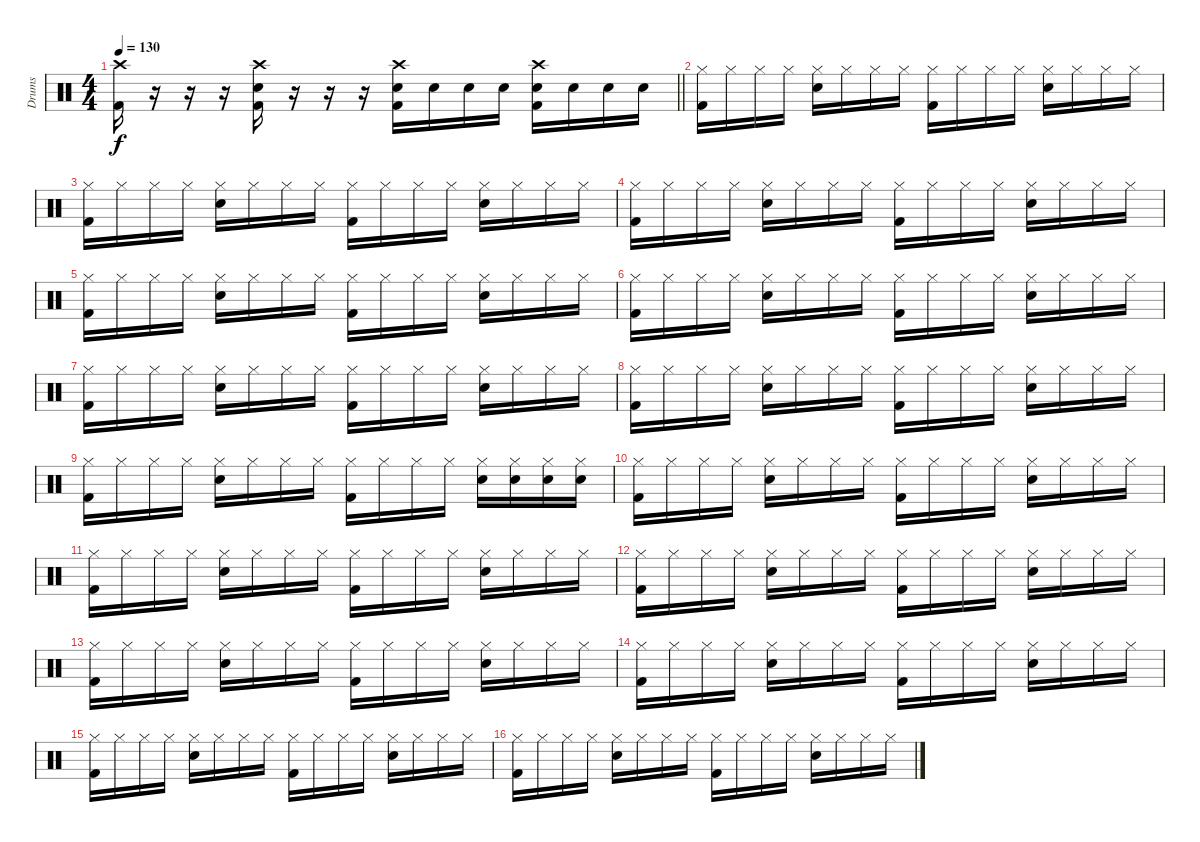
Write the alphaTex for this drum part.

\track ("Drums" "Drums") {instrument percussion}
\staff {score}
\articulation defaults
\ts (4 4)
\tempo 130
\clef neutral
\barLineRight lightlight
\ks c
("Crash high (hit)" "Kick (hit) 2").16{dy f} r.16 r.16 r.16 ("Crash high (hit)" "Hand Clap (hit)" "Kick (hit) 2").16 r.16 r.16 r.16 ("Crash high (hit)" "Electric Snare (hit)" "Kick (hit) 2").16 "Electric Snare (hit)".16 "Electric Snare (hit)".16 "Electric Snare (hit)".16 ("Crash high (hit)" "Electric Snare (hit)" "Kick (hit) 2").16 "Electric Snare (hit)".16 "Electric Snare (hit)".16 "Electric Snare (hit)".16 |
\section ("" "")
("Hi-Hat (closed)" "Kick (hit) 2").16 "Hi-Hat (closed)".16 "Hi-Hat (closed)".16 "Hi-Hat (closed)".16 ("Hi-Hat (closed)" "Electric Snare (hit)").16 "Hi-Hat (closed)".16 "Hi-Hat (closed)".16 "Hi-Hat (closed)".16 ("Hi-Hat (closed)" "Kick (hit) 2").16 "Hi-Hat (closed)".16 "Hi-Hat (closed)".16 "Hi-Hat (closed)".16 ("Hi-Hat (closed)" "Electric Snare (hit)").16 "Hi-Hat (closed)".16 "Hi-Hat (closed)".16 "Hi-Hat (closed)".16 |
("Hi-Hat (closed)" "Kick (hit) 2").16 "Hi-Hat (closed)".16 "Hi-Hat (closed)".16 "Hi-Hat (closed)".16 ("Hi-Hat (closed)" "Electric Snare (hit)").16 "Hi-Hat (closed)".16 "Hi-Hat (closed)".16 "Hi-Hat (closed)".16 ("Hi-Hat (closed)" "Kick (hit) 2").16 "Hi-Hat (closed)".16 "Hi-Hat (closed)".16 "Hi-Hat (closed)".16 ("Hi-Hat (closed)" "Electric Snare (hit)").16 "Hi-Hat (closed)".16 "Hi-Hat (closed)".16 "Hi-Hat (closed)".16 |
("Hi-Hat (closed)" "Kick (hit) 2").16 "Hi-Hat (closed)".16 "Hi-Hat (closed)".16 "Hi-Hat (closed)".16 ("Hi-Hat (closed)" "Electric Snare (hit)").16 "Hi-Hat (closed)".16 "Hi-Hat (closed)".16 "Hi-Hat (closed)".16 ("Hi-Hat (closed)" "Kick (hit) 2").16 "Hi-Hat (closed)".16 "Hi-Hat (closed)".16 "Hi-Hat (closed)".16 ("Hi-Hat (closed)" "Electric Snare (hit)").16 "Hi-Hat (closed)".16 "Hi-Hat (closed)".16 "Hi-Hat (closed)".16 |
("Hi-Hat (closed)" "Kick (hit) 2").16 "Hi-Hat (closed)".16 "Hi-Hat (closed)".16 "Hi-Hat (closed)".16 ("Hi-Hat (closed)" "Electric Snare (hit)").16 "Hi-Hat (closed)".16 "Hi-Hat (closed)".16 "Hi-Hat (closed)".16 ("Hi-Hat (closed)" "Kick (hit) 2").16 "Hi-Hat (closed)".16 "Hi-Hat (closed)".16 "Hi-Hat (closed)".16 ("Hi-Hat (closed)" "Electric Snare (hit)").16 "Hi-Hat (closed)".16 "Hi-Hat (closed)".16 "Hi-Hat (closed)".16 |
("Hi-Hat (closed)" "Kick (hit) 2").16 "Hi-Hat (closed)".16 "Hi-Hat (closed)".16 "Hi-Hat (closed)".16 ("Hi-Hat (closed)" "Electric Snare (hit)").16 "Hi-Hat (closed)".16 "Hi-Hat (closed)".16 "Hi-Hat (closed)".16 ("Hi-Hat (closed)" "Kick (hit) 2").16 "Hi-Hat (closed)".16 "Hi-Hat (closed)".16 "Hi-Hat (closed)".16 ("Hi-Hat (closed)" "Electric Snare (hit)").16 "Hi-Hat (closed)".16 "Hi-Hat (closed)".16 "Hi-Hat (closed)".16 |
("Hi-Hat (closed)" "Kick (hit) 2").16 "Hi-Hat (closed)".16 "Hi-Hat (closed)".16 "Hi-Hat (closed)".16 ("Hi-Hat (closed)" "Electric Snare (hit)").16 "Hi-Hat (closed)".16 "Hi-Hat (closed)".16 "Hi-Hat (closed)".16 ("Hi-Hat (closed)" "Kick (hit) 2").16 "Hi-Hat (closed)".16 "Hi-Hat (closed)".16 "Hi-Hat (closed)".16 ("Hi-Hat (closed)" "Electric Snare (hit)").16 "Hi-Hat (closed)".16 "Hi-Hat (closed)".16 "Hi-Hat (closed)".16 |
("Hi-Hat (closed)" "Kick (hit) 2").16 "Hi-Hat (closed)".16 "Hi-Hat (closed)".16 "Hi-Hat (closed)".16 ("Hi-Hat (closed)" "Electric Snare (hit)").16 "Hi-Hat (closed)".16 "Hi-Hat (closed)".16 "Hi-Hat (closed)".16 ("Hi-Hat (closed)" "Kick (hit) 2").16 "Hi-Hat (closed)".16 "Hi-Hat (closed)".16 "Hi-Hat (closed)".16 ("Hi-Hat (closed)" "Electric Snare (hit)").16 "Hi-Hat (closed)".16 "Hi-Hat (closed)".16 "Hi-Hat (closed)".16 |
("Hi-Hat (closed)" "Kick (hit) 2").16 "Hi-Hat (closed)".16 "Hi-Hat (closed)".16 "Hi-Hat (closed)".16 ("Hi-Hat (closed)" "Electric Snare (hit)").16 "Hi-Hat (closed)".16 "Hi-Hat (closed)".16 "Hi-Hat (closed)".16 ("Hi-Hat (closed)" "Kick (hit) 2").16 "Hi-Hat (closed)".16 "Hi-Hat (closed)".16 "Hi-Hat (closed)".16 ("Hi-Hat (closed)" "Electric Snare (hit)").16 ("Hi-Hat (closed)" "Electric Snare (hit)").16 ("Hi-Hat (closed)" "Electric Snare (hit)").16 ("Hi-Hat (closed)" "Electric Snare (hit)").16 |
("Hi-Hat (closed)" "Kick (hit) 2").16 "Hi-Hat (closed)".16 "Hi-Hat (closed)".16 "Hi-Hat (closed)".16 ("Hi-Hat (closed)" "Electric Snare (hit)").16 "Hi-Hat (closed)".16 "Hi-Hat (closed)".16 "Hi-Hat (closed)".16 ("Hi-Hat (closed)" "Kick (hit) 2").16 "Hi-Hat (closed)".16 "Hi-Hat (closed)".16 "Hi-Hat (closed)".16 ("Hi-Hat (closed)" "Electric Snare (hit)").16 "Hi-Hat (closed)".16 "Hi-Hat (closed)".16 "Hi-Hat (closed)".16 |
("Hi-Hat (closed)" "Kick (hit) 2").16 "Hi-Hat (closed)".16 "Hi-Hat (closed)".16 "Hi-Hat (closed)".16 ("Hi-Hat (closed)" "Electric Snare (hit)").16 "Hi-Hat (closed)".16 "Hi-Hat (closed)".16 "Hi-Hat (closed)".16 ("Hi-Hat (closed)" "Kick (hit) 2").16 "Hi-Hat (closed)".16 "Hi-Hat (closed)".16 "Hi-Hat (closed)".16 ("Hi-Hat (closed)" "Electric Snare (hit)").16 "Hi-Hat (closed)".16 "Hi-Hat (closed)".16 "Hi-Hat (closed)".16 |
("Hi-Hat (closed)" "Kick (hit) 2").16 "Hi-Hat (closed)".16 "Hi-Hat (closed)".16 "Hi-Hat (closed)".16 ("Hi-Hat (closed)" "Electric Snare (hit)").16 "Hi-Hat (closed)".16 "Hi-Hat (closed)".16 "Hi-Hat (closed)".16 ("Hi-Hat (closed)" "Kick (hit) 2").16 "Hi-Hat (closed)".16 "Hi-Hat (closed)".16 "Hi-Hat (closed)".16 ("Hi-Hat (closed)" "Electric Snare (hit)").16 "Hi-Hat (closed)".16 "Hi-Hat (closed)".16 "Hi-Hat (closed)".16 |
("Hi-Hat (closed)" "Kick (hit) 2").16 "Hi-Hat (closed)".16 "Hi-Hat (closed)".16 "Hi-Hat (closed)".16 ("Hi-Hat (closed)" "Electric Snare (hit)").16 "Hi-Hat (closed)".16 "Hi-Hat (closed)".16 "Hi-Hat (closed)".16 ("Hi-Hat (closed)" "Kick (hit) 2").16 "Hi-Hat (closed)".16 "Hi-Hat (closed)".16 "Hi-Hat (closed)".16 ("Hi-Hat (closed)" "Electric Snare (hit)").16 "Hi-Hat (closed)".16 "Hi-Hat (closed)".16 "Hi-Hat (closed)".16 |
("Hi-Hat (closed)" "Kick (hit) 2").16 "Hi-Hat (closed)".16 "Hi-Hat (closed)".16 "Hi-Hat (closed)".16 ("Hi-Hat (closed)" "Electric Snare (hit)").16 "Hi-Hat (closed)".16 "Hi-Hat (closed)".16 "Hi-Hat (closed)".16 ("Hi-Hat (closed)" "Kick (hit) 2").16 "Hi-Hat (closed)".16 "Hi-Hat (closed)".16 "Hi-Hat (closed)".16 ("Hi-Hat (closed)" "Electric Snare (hit)").16 "Hi-Hat (closed)".16 "Hi-Hat (closed)".16 "Hi-Hat (closed)".16 |
("Hi-Hat (closed)" "Kick (hit) 2").16 "Hi-Hat (closed)".16 "Hi-Hat (closed)".16 "Hi-Hat (closed)".16 ("Hi-Hat (closed)" "Electric Snare (hit)").16 "Hi-Hat (closed)".16 "Hi-Hat (closed)".16 "Hi-Hat (closed)".16 ("Hi-Hat (closed)" "Kick (hit) 2").16 "Hi-Hat (closed)".16 "Hi-Hat (closed)".16 "Hi-Hat (closed)".16 ("Hi-Hat (closed)" "Electric Snare (hit)").16 "Hi-Hat (closed)".16 "Hi-Hat (closed)".16 "Hi-Hat (closed)".16 |
("Hi-Hat (closed)" "Kick (hit) 2").16 "Hi-Hat (closed)".16 "Hi-Hat (closed)".16 "Hi-Hat (closed)".16 ("Hi-Hat (closed)" "Electric Snare (hit)").16 "Hi-Hat (closed)".16 "Hi-Hat (closed)".16 "Hi-Hat (closed)".16 ("Hi-Hat (closed)" "Kick (hit) 2").16 "Hi-Hat (closed)".16 "Hi-Hat (closed)".16 "Hi-Hat (closed)".16 ("Hi-Hat (closed)" "Electric Snare (hit)").16 "Hi-Hat (closed)".16 "Hi-Hat (closed)".16 "Hi-Hat (closed)".16
